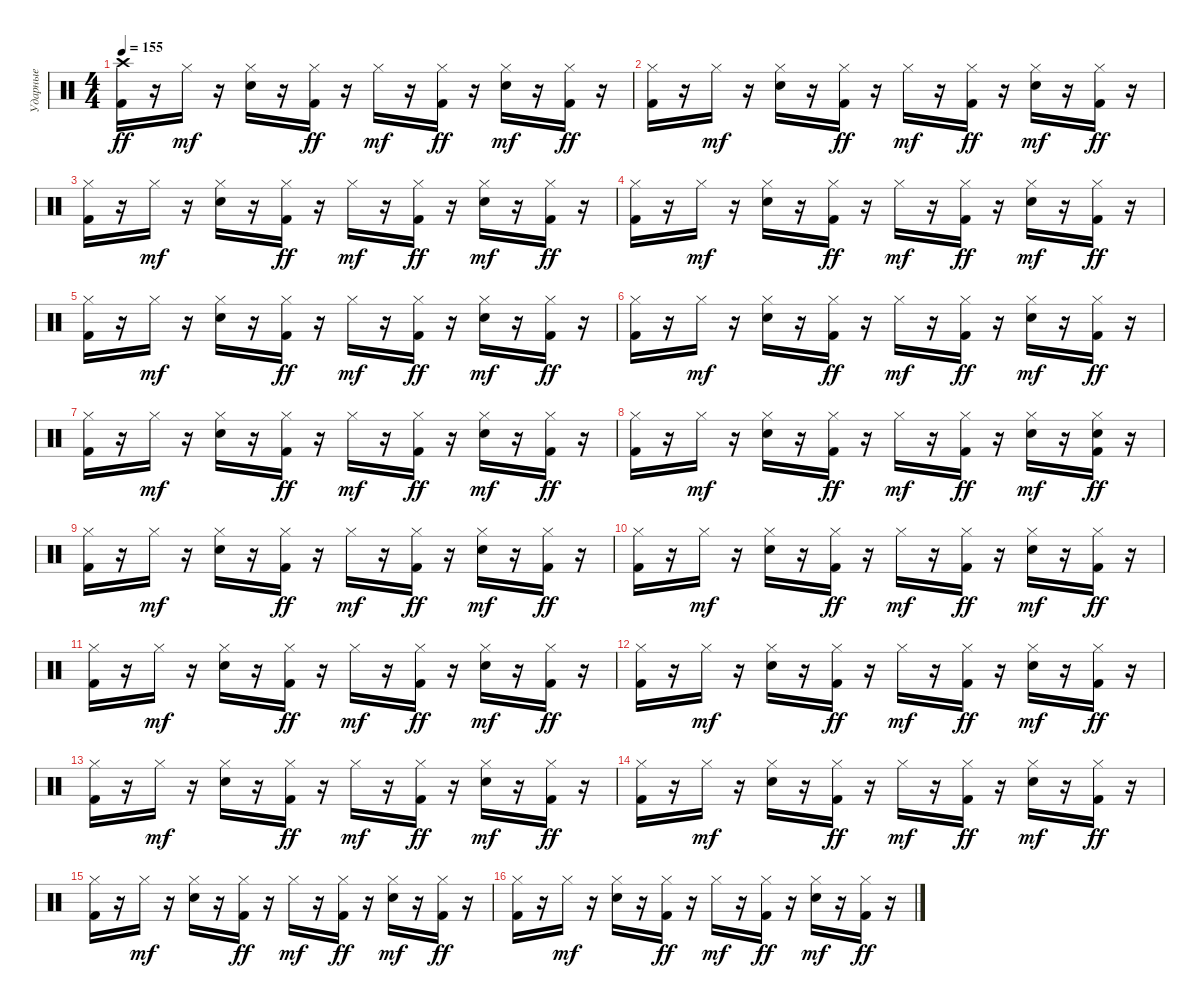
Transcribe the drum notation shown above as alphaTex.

\track ("Ударные" "Ударные") {instrument percussion}
\staff {score}
\articulation defaults
\ts (4 4)
\tempo 155
\clef neutral
\ks c
("Crash high (hit)" "Kick (hit) 2").16{dy ff} r.16 "Hi-Hat (closed)".16{dy mf} r.16 ("Hi-Hat (closed)" "Electric Snare (hit)").16 r.16 ("Hi-Hat (closed)" "Kick (hit) 2").16{dy ff} r.16 "Hi-Hat (closed)".16{dy mf} r.16 ("Hi-Hat (closed)" "Kick (hit) 2").16{dy ff} r.16 ("Hi-Hat (closed)" "Electric Snare (hit)").16{dy mf} r.16 ("Hi-Hat (closed)" "Kick (hit) 2").16{dy ff} r.16 |
("Hi-Hat (closed)" "Kick (hit) 2").16 r.16 "Hi-Hat (closed)".16{dy mf} r.16 ("Hi-Hat (closed)" "Electric Snare (hit)").16 r.16 ("Hi-Hat (closed)" "Kick (hit) 2").16{dy ff} r.16 "Hi-Hat (closed)".16{dy mf} r.16 ("Hi-Hat (closed)" "Kick (hit) 2").16{dy ff} r.16 ("Hi-Hat (closed)" "Electric Snare (hit)").16{dy mf} r.16 ("Hi-Hat (closed)" "Kick (hit) 2").16{dy ff} r.16 |
("Hi-Hat (closed)" "Kick (hit) 2").16 r.16 "Hi-Hat (closed)".16{dy mf} r.16 ("Hi-Hat (closed)" "Electric Snare (hit)").16 r.16 ("Hi-Hat (closed)" "Kick (hit) 2").16{dy ff} r.16 "Hi-Hat (closed)".16{dy mf} r.16 ("Hi-Hat (closed)" "Kick (hit) 2").16{dy ff} r.16 ("Hi-Hat (closed)" "Electric Snare (hit)").16{dy mf} r.16 ("Hi-Hat (closed)" "Kick (hit) 2").16{dy ff} r.16 |
("Hi-Hat (closed)" "Kick (hit) 2").16 r.16 "Hi-Hat (closed)".16{dy mf} r.16 ("Hi-Hat (closed)" "Electric Snare (hit)").16 r.16 ("Hi-Hat (closed)" "Kick (hit) 2").16{dy ff} r.16 "Hi-Hat (closed)".16{dy mf} r.16 ("Hi-Hat (closed)" "Kick (hit) 2").16{dy ff} r.16 ("Hi-Hat (closed)" "Electric Snare (hit)").16{dy mf} r.16 ("Hi-Hat (closed)" "Kick (hit) 2").16{dy ff} r.16 |
("Hi-Hat (closed)" "Kick (hit) 2").16 r.16 "Hi-Hat (closed)".16{dy mf} r.16 ("Hi-Hat (closed)" "Electric Snare (hit)").16 r.16 ("Hi-Hat (closed)" "Kick (hit) 2").16{dy ff} r.16 "Hi-Hat (closed)".16{dy mf} r.16 ("Hi-Hat (closed)" "Kick (hit) 2").16{dy ff} r.16 ("Hi-Hat (closed)" "Electric Snare (hit)").16{dy mf} r.16 ("Hi-Hat (closed)" "Kick (hit) 2").16{dy ff} r.16 |
("Hi-Hat (closed)" "Kick (hit) 2").16 r.16 "Hi-Hat (closed)".16{dy mf} r.16 ("Hi-Hat (closed)" "Electric Snare (hit)").16 r.16 ("Hi-Hat (closed)" "Kick (hit) 2").16{dy ff} r.16 "Hi-Hat (closed)".16{dy mf} r.16 ("Hi-Hat (closed)" "Kick (hit) 2").16{dy ff} r.16 ("Hi-Hat (closed)" "Electric Snare (hit)").16{dy mf} r.16 ("Hi-Hat (closed)" "Kick (hit) 2").16{dy ff} r.16 |
("Hi-Hat (closed)" "Kick (hit) 2").16 r.16 "Hi-Hat (closed)".16{dy mf} r.16 ("Hi-Hat (closed)" "Electric Snare (hit)").16 r.16 ("Hi-Hat (closed)" "Kick (hit) 2").16{dy ff} r.16 "Hi-Hat (closed)".16{dy mf} r.16 ("Hi-Hat (closed)" "Kick (hit) 2").16{dy ff} r.16 ("Hi-Hat (closed)" "Electric Snare (hit)").16{dy mf} r.16 ("Hi-Hat (closed)" "Kick (hit) 2").16{dy ff} r.16 |
("Hi-Hat (closed)" "Kick (hit) 2").16 r.16 "Hi-Hat (closed)".16{dy mf} r.16 ("Hi-Hat (closed)" "Electric Snare (hit)").16 r.16 ("Hi-Hat (closed)" "Kick (hit) 2").16{dy ff} r.16 "Hi-Hat (closed)".16{dy mf} r.16 ("Hi-Hat (closed)" "Kick (hit) 2").16{dy ff} r.16 ("Hi-Hat (closed)" "Electric Snare (hit)").16{dy mf} r.16 ("Hi-Hat (closed)" "Electric Snare (hit)" "Kick (hit) 2").16{dy ff} r.16 |
("Hi-Hat (closed)" "Kick (hit) 2").16 r.16 "Hi-Hat (closed)".16{dy mf} r.16 ("Hi-Hat (closed)" "Electric Snare (hit)").16 r.16 ("Hi-Hat (closed)" "Kick (hit) 2").16{dy ff} r.16 "Hi-Hat (closed)".16{dy mf} r.16 ("Hi-Hat (closed)" "Kick (hit) 2").16{dy ff} r.16 ("Hi-Hat (closed)" "Electric Snare (hit)").16{dy mf} r.16 ("Hi-Hat (closed)" "Kick (hit) 2").16{dy ff} r.16 |
("Hi-Hat (closed)" "Kick (hit) 2").16 r.16 "Hi-Hat (closed)".16{dy mf} r.16 ("Hi-Hat (closed)" "Electric Snare (hit)").16 r.16 ("Hi-Hat (closed)" "Kick (hit) 2").16{dy ff} r.16 "Hi-Hat (closed)".16{dy mf} r.16 ("Hi-Hat (closed)" "Kick (hit) 2").16{dy ff} r.16 ("Hi-Hat (closed)" "Electric Snare (hit)").16{dy mf} r.16 ("Hi-Hat (closed)" "Kick (hit) 2").16{dy ff} r.16 |
("Hi-Hat (closed)" "Kick (hit) 2").16 r.16 "Hi-Hat (closed)".16{dy mf} r.16 ("Hi-Hat (closed)" "Electric Snare (hit)").16 r.16 ("Hi-Hat (closed)" "Kick (hit) 2").16{dy ff} r.16 "Hi-Hat (closed)".16{dy mf} r.16 ("Hi-Hat (closed)" "Kick (hit) 2").16{dy ff} r.16 ("Hi-Hat (closed)" "Electric Snare (hit)").16{dy mf} r.16 ("Hi-Hat (closed)" "Kick (hit) 2").16{dy ff} r.16 |
("Hi-Hat (closed)" "Kick (hit) 2").16 r.16 "Hi-Hat (closed)".16{dy mf} r.16 ("Hi-Hat (closed)" "Electric Snare (hit)").16 r.16 ("Hi-Hat (closed)" "Kick (hit) 2").16{dy ff} r.16 "Hi-Hat (closed)".16{dy mf} r.16 ("Hi-Hat (closed)" "Kick (hit) 2").16{dy ff} r.16 ("Hi-Hat (closed)" "Electric Snare (hit)").16{dy mf} r.16 ("Hi-Hat (closed)" "Kick (hit) 2").16{dy ff} r.16 |
("Hi-Hat (closed)" "Kick (hit) 2").16 r.16 "Hi-Hat (closed)".16{dy mf} r.16 ("Hi-Hat (closed)" "Electric Snare (hit)").16 r.16 ("Hi-Hat (closed)" "Kick (hit) 2").16{dy ff} r.16 "Hi-Hat (closed)".16{dy mf} r.16 ("Hi-Hat (closed)" "Kick (hit) 2").16{dy ff} r.16 ("Hi-Hat (closed)" "Electric Snare (hit)").16{dy mf} r.16 ("Hi-Hat (closed)" "Kick (hit) 2").16{dy ff} r.16 |
("Hi-Hat (closed)" "Kick (hit) 2").16 r.16 "Hi-Hat (closed)".16{dy mf} r.16 ("Hi-Hat (closed)" "Electric Snare (hit)").16 r.16 ("Hi-Hat (closed)" "Kick (hit) 2").16{dy ff} r.16 "Hi-Hat (closed)".16{dy mf} r.16 ("Hi-Hat (closed)" "Kick (hit) 2").16{dy ff} r.16 ("Hi-Hat (closed)" "Electric Snare (hit)").16{dy mf} r.16 ("Hi-Hat (closed)" "Kick (hit) 2").16{dy ff} r.16 |
("Hi-Hat (closed)" "Kick (hit) 2").16 r.16 "Hi-Hat (closed)".16{dy mf} r.16 ("Hi-Hat (closed)" "Electric Snare (hit)").16 r.16 ("Hi-Hat (closed)" "Kick (hit) 2").16{dy ff} r.16 "Hi-Hat (closed)".16{dy mf} r.16 ("Hi-Hat (closed)" "Kick (hit) 2").16{dy ff} r.16 ("Hi-Hat (closed)" "Electric Snare (hit)").16{dy mf} r.16 ("Hi-Hat (closed)" "Kick (hit) 2").16{dy ff} r.16 |
("Hi-Hat (closed)" "Kick (hit) 2").16 r.16 "Hi-Hat (closed)".16{dy mf} r.16 ("Hi-Hat (closed)" "Electric Snare (hit)").16 r.16 ("Hi-Hat (closed)" "Kick (hit) 2").16{dy ff} r.16 "Hi-Hat (closed)".16{dy mf} r.16 ("Hi-Hat (closed)" "Kick (hit) 2").16{dy ff} r.16 ("Hi-Hat (closed)" "Electric Snare (hit)").16{dy mf} r.16 ("Hi-Hat (closed)" "Kick (hit) 2").16{dy ff} r.16
